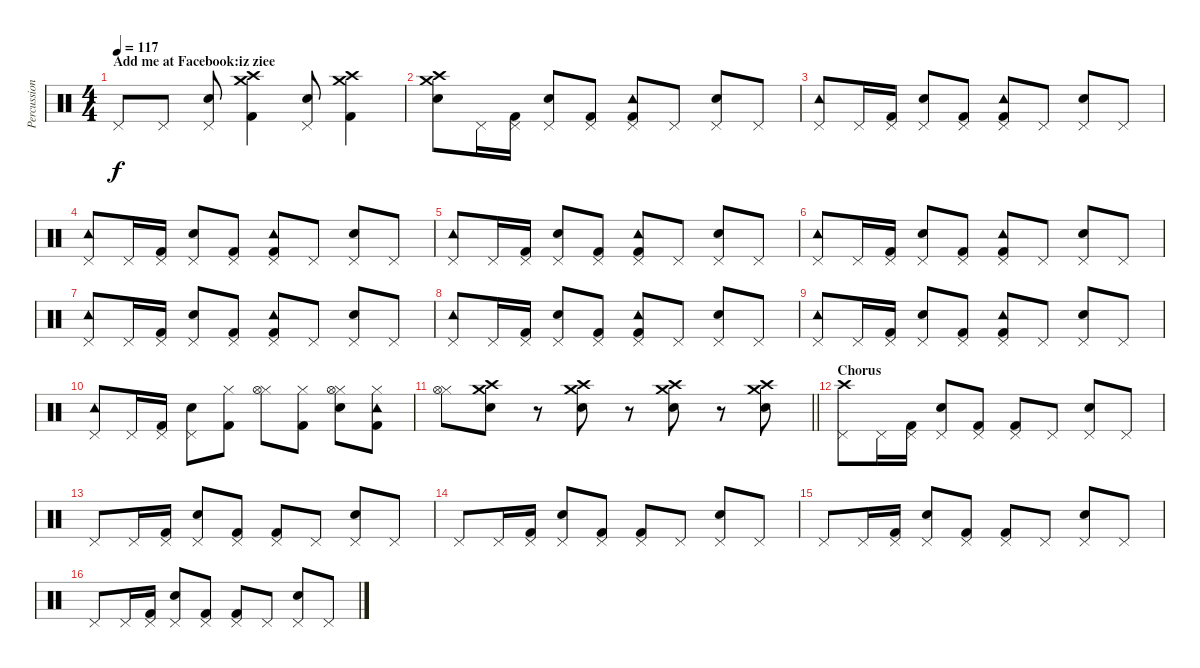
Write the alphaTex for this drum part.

\track ("Percussion" "Percussion") {instrument percussion}
\staff {score}
\articulation defaults
\ts (4 4)
\section ("" "Add me at Facebook:iz ziee ")
\tempo 117
\clef neutral
\ks c "Pedal Hi-Hat (hit)".8{dy f} "Pedal Hi-Hat (hit)".8
("Pedal Hi-Hat (hit)" "Snare (hit) 2").8 ("Crash high (hit)" "Kick (hit) 2" "Crash medium (hit)").4 ("Pedal Hi-Hat (hit)" "Snare (hit) 2").8 ("Crash high (hit)" "Kick (hit) 2" "Crash medium (hit)").4 |
("Crash high (hit)" "Snare (hit) 2" "Crash medium (hit)").8 "Pedal Hi-Hat (hit)".16 ("Pedal Hi-Hat (hit)" "Kick (hit) 2").16 ("Pedal Hi-Hat (hit)" "Electric Snare (hit)").8 ("Pedal Hi-Hat (hit)" "Kick (hit) 2").8 ("Pedal Hi-Hat (hit)" "Kick (hit) 2" "Tambourine (hit)").8 "Pedal Hi-Hat (hit)".8 ("Pedal Hi-Hat (hit)" "Electric Snare (hit)").8 "Pedal Hi-Hat (hit)".8 |
("Pedal Hi-Hat (hit)" "Tambourine (hit)").8 "Pedal Hi-Hat (hit)".16 ("Pedal Hi-Hat (hit)" "Kick (hit) 2").16 ("Pedal Hi-Hat (hit)" "Electric Snare (hit)").8 ("Pedal Hi-Hat (hit)" "Kick (hit) 2").8 ("Pedal Hi-Hat (hit)" "Kick (hit) 2" "Tambourine (hit)").8 "Pedal Hi-Hat (hit)".8 ("Pedal Hi-Hat (hit)" "Electric Snare (hit)").8 "Pedal Hi-Hat (hit)".8 |
("Pedal Hi-Hat (hit)" "Tambourine (hit)").8 "Pedal Hi-Hat (hit)".16 ("Pedal Hi-Hat (hit)" "Kick (hit) 2").16 ("Pedal Hi-Hat (hit)" "Electric Snare (hit)").8 ("Pedal Hi-Hat (hit)" "Kick (hit) 2").8 ("Pedal Hi-Hat (hit)" "Kick (hit) 2" "Tambourine (hit)").8 "Pedal Hi-Hat (hit)".8 ("Pedal Hi-Hat (hit)" "Electric Snare (hit)").8 "Pedal Hi-Hat (hit)".8 |
("Pedal Hi-Hat (hit)" "Tambourine (hit)").8 "Pedal Hi-Hat (hit)".16 ("Pedal Hi-Hat (hit)" "Kick (hit) 2").16 ("Pedal Hi-Hat (hit)" "Electric Snare (hit)").8 ("Pedal Hi-Hat (hit)" "Kick (hit) 2").8 ("Pedal Hi-Hat (hit)" "Kick (hit) 2" "Tambourine (hit)").8 "Pedal Hi-Hat (hit)".8 ("Pedal Hi-Hat (hit)" "Electric Snare (hit)").8 "Pedal Hi-Hat (hit)".8 |
("Pedal Hi-Hat (hit)" "Tambourine (hit)").8 "Pedal Hi-Hat (hit)".16 ("Pedal Hi-Hat (hit)" "Kick (hit) 2").16 ("Pedal Hi-Hat (hit)" "Electric Snare (hit)").8 ("Pedal Hi-Hat (hit)" "Kick (hit) 2").8 ("Pedal Hi-Hat (hit)" "Kick (hit) 2" "Tambourine (hit)").8 "Pedal Hi-Hat (hit)".8 ("Pedal Hi-Hat (hit)" "Electric Snare (hit)").8 "Pedal Hi-Hat (hit)".8 |
("Pedal Hi-Hat (hit)" "Tambourine (hit)").8 "Pedal Hi-Hat (hit)".16 ("Pedal Hi-Hat (hit)" "Kick (hit) 2").16 ("Pedal Hi-Hat (hit)" "Electric Snare (hit)").8 ("Pedal Hi-Hat (hit)" "Kick (hit) 2").8 ("Pedal Hi-Hat (hit)" "Kick (hit) 2" "Tambourine (hit)").8 "Pedal Hi-Hat (hit)".8 ("Pedal Hi-Hat (hit)" "Electric Snare (hit)").8 "Pedal Hi-Hat (hit)".8 |
("Pedal Hi-Hat (hit)" "Tambourine (hit)").8 "Pedal Hi-Hat (hit)".16 ("Pedal Hi-Hat (hit)" "Kick (hit) 2").16 ("Pedal Hi-Hat (hit)" "Electric Snare (hit)").8 ("Pedal Hi-Hat (hit)" "Kick (hit) 2").8 ("Pedal Hi-Hat (hit)" "Kick (hit) 2" "Tambourine (hit)").8 "Pedal Hi-Hat (hit)".8 ("Pedal Hi-Hat (hit)" "Electric Snare (hit)").8 "Pedal Hi-Hat (hit)".8 |
("Pedal Hi-Hat (hit)" "Tambourine (hit)").8 "Pedal Hi-Hat (hit)".16 ("Pedal Hi-Hat (hit)" "Kick (hit) 2").16 ("Pedal Hi-Hat (hit)" "Electric Snare (hit)").8 ("Pedal Hi-Hat (hit)" "Kick (hit) 2").8 ("Pedal Hi-Hat (hit)" "Kick (hit) 2" "Tambourine (hit)").8 "Pedal Hi-Hat (hit)".8 ("Pedal Hi-Hat (hit)" "Electric Snare (hit)").8 "Pedal Hi-Hat (hit)".8 |
("Pedal Hi-Hat (hit)" "Tambourine (hit)").8 "Pedal Hi-Hat (hit)".16 ("Pedal Hi-Hat (hit)" "Kick (hit) 2").16 ("Pedal Hi-Hat (hit)" "Electric Snare (hit)").8 ("Hi-Hat (closed)" "Kick (hit) 2").8 ("Hi-Hat (closed)" "Hi-Hat (open)").8 ("Hi-Hat (closed)" "Kick (hit) 2").8 ("Hi-Hat (closed)" "Hi-Hat (open)" "Electric Snare (hit)").8 ("Hi-Hat (closed)" "Kick (hit) 2" "Tambourine (hit)").8 |
\barLineRight lightlight
("Hi-Hat (closed)" "Hi-Hat (open)").8 ("Crash high (hit)" "Electric Snare (hit)" "Crash medium (hit)").8 r.8 ("Crash high (hit)" "Snare (hit) 2" "Crash medium (hit)").8 r.8 ("Crash high (hit)" "Snare (hit) 2" "Crash medium (hit)").8 r.8 ("Crash high (hit)" "Snare (hit) 2" "Crash medium (hit)").8 |
\section ("" "Chorus")
("Pedal Hi-Hat (hit)" "Crash high (hit)").8 "Pedal Hi-Hat (hit)".16 ("Pedal Hi-Hat (hit)" "Kick (hit) 2").16 ("Pedal Hi-Hat (hit)" "Electric Snare (hit)").8 ("Pedal Hi-Hat (hit)" "Kick (hit) 2").8 ("Pedal Hi-Hat (hit)" "Kick (hit) 2").8 "Pedal Hi-Hat (hit)".8 ("Pedal Hi-Hat (hit)" "Electric Snare (hit)").8 "Pedal Hi-Hat (hit)".8 |
"Pedal Hi-Hat (hit)".8 "Pedal Hi-Hat (hit)".16 ("Pedal Hi-Hat (hit)" "Kick (hit) 2").16 ("Pedal Hi-Hat (hit)" "Electric Snare (hit)").8 ("Pedal Hi-Hat (hit)" "Kick (hit) 2").8 ("Pedal Hi-Hat (hit)" "Kick (hit) 2").8 "Pedal Hi-Hat (hit)".8 ("Pedal Hi-Hat (hit)" "Electric Snare (hit)").8 "Pedal Hi-Hat (hit)".8 |
"Pedal Hi-Hat (hit)".8 "Pedal Hi-Hat (hit)".16 ("Pedal Hi-Hat (hit)" "Kick (hit) 2").16 ("Pedal Hi-Hat (hit)" "Electric Snare (hit)").8 ("Pedal Hi-Hat (hit)" "Kick (hit) 2").8 ("Pedal Hi-Hat (hit)" "Kick (hit) 2").8 "Pedal Hi-Hat (hit)".8 ("Pedal Hi-Hat (hit)" "Electric Snare (hit)").8 "Pedal Hi-Hat (hit)".8 |
"Pedal Hi-Hat (hit)".8 "Pedal Hi-Hat (hit)".16 ("Pedal Hi-Hat (hit)" "Kick (hit) 2").16 ("Pedal Hi-Hat (hit)" "Electric Snare (hit)").8 ("Pedal Hi-Hat (hit)" "Kick (hit) 2").8 ("Pedal Hi-Hat (hit)" "Kick (hit) 2").8 "Pedal Hi-Hat (hit)".8 ("Pedal Hi-Hat (hit)" "Electric Snare (hit)").8 "Pedal Hi-Hat (hit)".8 |
"Pedal Hi-Hat (hit)".8 "Pedal Hi-Hat (hit)".16 ("Pedal Hi-Hat (hit)" "Kick (hit) 2").16 ("Pedal Hi-Hat (hit)" "Electric Snare (hit)").8 ("Pedal Hi-Hat (hit)" "Kick (hit) 2").8 ("Pedal Hi-Hat (hit)" "Kick (hit) 2").8 "Pedal Hi-Hat (hit)".8 ("Pedal Hi-Hat (hit)" "Electric Snare (hit)").8 "Pedal Hi-Hat (hit)".8
